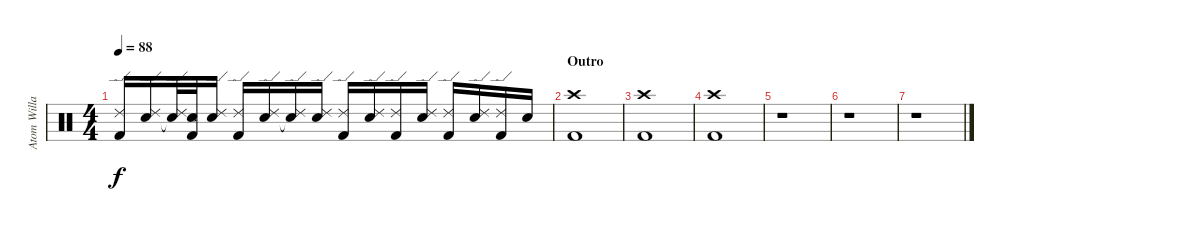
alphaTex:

\track ("Atom Willard (Drums)" "Atom Willa") {instrument percussion}
\staff {score}
\articulation defaults
\ts (4 4)
\tempo 88
\clef neutral
\ks c
("Ride (edge) 2" "Kick (hit) 2").16{dy f} ("Ride (edge) 2" "Electric Snare (hit)").16 ("Ride (edge) 2" "Snare (hit)"{t}).32 ("Snare (hit)"{t} "Kick (hit) 2").32 ("Ride (edge) 2" "Electric Snare (hit)").16 ("Ride (edge) 2" "Kick (hit) 2").16 ("Ride (edge) 2" "Electric Snare (hit)").16 ("Ride (edge) 2" "Snare (hit)"{t}).16 ("Ride (edge) 2" "Electric Snare (hit)").16 ("Ride (edge) 2" "Kick (hit) 2").16 ("Ride (edge) 2" "Electric Snare (hit)").16 ("Ride (edge) 2" "Kick (hit) 2").16 ("Ride (edge) 2" "Electric Snare (hit)").16 ("Ride (edge) 2" "Kick (hit) 2").16 ("Ride (edge) 2" "Electric Snare (hit)").16 ("Ride (edge) 2" "Kick (hit) 2").16 "Electric Snare (hit)".16 |
\section ("" "Outro")
("Crash high (hit)" "Kick (hit) 2").1 |
("Crash high (hit)" "Kick (hit) 2").1 |
("Crash high (hit)" "Kick (hit) 2").1 |
r.1 |
r.1 |
r.1
